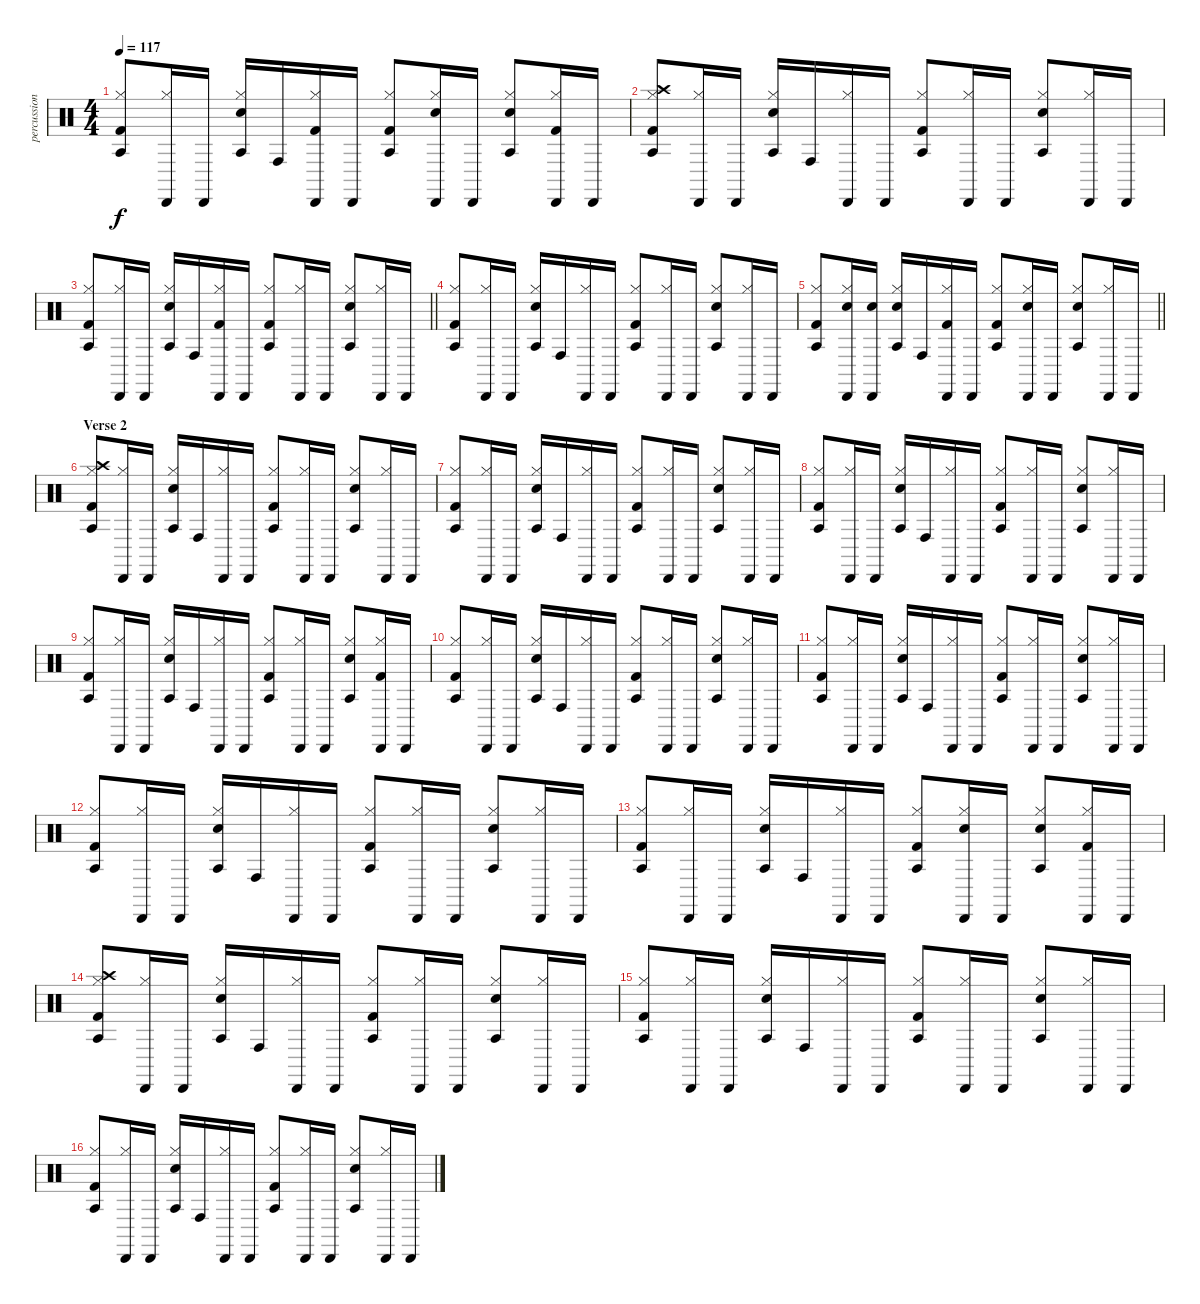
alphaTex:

\track ("percussion" "percussion") {instrument percussion}
\staff {score}
\articulation defaults
\ts (4 4)
\tempo 117
\clef neutral
\ks c
("Agogo tow (hit)" "Hi-Hat (closed)" "Kick (hit) 2").8{dy f} ("Cabasa (hit)" "Hi-Hat (closed)").16 "Cabasa (hit)".16 ("Agogo tow (hit)" "Snare (hit) 2" "Hi-Hat (closed)").16 "Conga high (hit)".16 ("Cabasa (hit)" "Hi-Hat (closed)" "Kick (hit) 2").16 "Cabasa (hit)".16 ("Agogo tow (hit)" "Hi-Hat (closed)" "Kick (hit) 2").8 ("Cabasa (hit)" "Snare (hit) 2" "Hi-Hat (closed)").16 "Cabasa (hit)".16 ("Agogo tow (hit)" "Snare (hit) 2" "Hi-Hat (closed)").8 ("Cabasa (hit)" "Hi-Hat (closed)" "Kick (hit) 2").16 "Cabasa (hit)".16 |
("Crash high (hit)" "Agogo tow (hit)" "Hi-Hat (closed)" "Kick (hit) 2").8 ("Cabasa (hit)" "Hi-Hat (closed)").16 "Cabasa (hit)".16 ("Agogo tow (hit)" "Snare (hit) 2" "Hi-Hat (closed)").16 "Conga high (hit)".16 ("Cabasa (hit)" "Hi-Hat (closed)").16 "Cabasa (hit)".16 ("Agogo tow (hit)" "Hi-Hat (closed)" "Kick (hit) 2").8 ("Cabasa (hit)" "Hi-Hat (closed)").16 "Cabasa (hit)".16 ("Agogo tow (hit)" "Snare (hit) 2" "Hi-Hat (closed)").8 ("Cabasa (hit)" "Hi-Hat (closed)").16 "Cabasa (hit)".16 |
\barLineRight lightlight
("Agogo tow (hit)" "Hi-Hat (closed)" "Kick (hit) 2").8 ("Cabasa (hit)" "Hi-Hat (closed)").16 "Cabasa (hit)".16 ("Agogo tow (hit)" "Snare (hit) 2" "Hi-Hat (closed)").16 "Conga high (hit)".16 ("Cabasa (hit)" "Hi-Hat (closed)" "Kick (hit) 2").16 "Cabasa (hit)".16 ("Agogo tow (hit)" "Hi-Hat (closed)" "Kick (hit) 2").8 ("Cabasa (hit)" "Hi-Hat (closed)").16 "Cabasa (hit)".16 ("Agogo tow (hit)" "Snare (hit) 2" "Hi-Hat (closed)").8 ("Cabasa (hit)" "Hi-Hat (closed)").16 "Cabasa (hit)".16 |
("Agogo tow (hit)" "Hi-Hat (closed)" "Kick (hit) 2").8 ("Cabasa (hit)" "Hi-Hat (closed)").16 "Cabasa (hit)".16 ("Agogo tow (hit)" "Snare (hit) 2" "Hi-Hat (closed)").16 "Conga high (hit)".16 ("Cabasa (hit)" "Hi-Hat (closed)").16 "Cabasa (hit)".16 ("Agogo tow (hit)" "Hi-Hat (closed)" "Kick (hit) 2").8 ("Cabasa (hit)" "Hi-Hat (closed)").16 "Cabasa (hit)".16 ("Agogo tow (hit)" "Snare (hit) 2" "Hi-Hat (closed)").8 ("Cabasa (hit)" "Hi-Hat (closed)").16 "Cabasa (hit)".16 |
\barLineRight lightlight
("Agogo tow (hit)" "Hi-Hat (closed)" "Kick (hit) 2").8 ("Cabasa (hit)" "Snare (hit) 2" "Hi-Hat (closed)").16 ("Cabasa (hit)" "Snare (hit) 2").16 ("Agogo tow (hit)" "Snare (hit) 2" "Hi-Hat (closed)").16 "Conga high (hit)".16 ("Cabasa (hit)" "Hi-Hat (closed)" "Kick (hit) 2").16 "Cabasa (hit)".16 ("Agogo tow (hit)" "Hi-Hat (closed)" "Kick (hit) 2").8 ("Cabasa (hit)" "Snare (hit) 2" "Hi-Hat (closed)").16 "Cabasa (hit)".16 ("Agogo tow (hit)" "Snare (hit) 2" "Hi-Hat (closed)").8 ("Cabasa (hit)" "Hi-Hat (closed)").16 "Cabasa (hit)".16 |
\section ("" "Verse 2")
("Crash high (hit)" "Agogo tow (hit)" "Hi-Hat (closed)" "Kick (hit) 2").8 ("Cabasa (hit)" "Hi-Hat (closed)").16 "Cabasa (hit)".16 ("Agogo tow (hit)" "Snare (hit) 2" "Hi-Hat (closed)").16 "Conga high (hit)".16 ("Cabasa (hit)" "Hi-Hat (closed)").16 "Cabasa (hit)".16 ("Agogo tow (hit)" "Hi-Hat (closed)" "Kick (hit) 2").8 ("Cabasa (hit)" "Hi-Hat (closed)").16 "Cabasa (hit)".16 ("Agogo tow (hit)" "Snare (hit) 2" "Hi-Hat (closed)").8 ("Cabasa (hit)" "Hi-Hat (closed)").16 "Cabasa (hit)".16 |
("Agogo tow (hit)" "Hi-Hat (closed)" "Kick (hit) 2").8 ("Cabasa (hit)" "Hi-Hat (closed)").16 "Cabasa (hit)".16 ("Agogo tow (hit)" "Snare (hit) 2" "Hi-Hat (closed)").16 "Conga high (hit)".16 ("Cabasa (hit)" "Hi-Hat (closed)").16 "Cabasa (hit)".16 ("Agogo tow (hit)" "Hi-Hat (closed)" "Kick (hit) 2").8 ("Cabasa (hit)" "Hi-Hat (closed)").16 "Cabasa (hit)".16 ("Agogo tow (hit)" "Snare (hit) 2" "Hi-Hat (closed)").8 ("Cabasa (hit)" "Hi-Hat (closed)").16 "Cabasa (hit)".16 |
("Agogo tow (hit)" "Hi-Hat (closed)" "Kick (hit) 2").8 ("Cabasa (hit)" "Hi-Hat (closed)").16 "Cabasa (hit)".16 ("Agogo tow (hit)" "Snare (hit) 2" "Hi-Hat (closed)").16 "Conga high (hit)".16 ("Cabasa (hit)" "Hi-Hat (closed)").16 "Cabasa (hit)".16 ("Agogo tow (hit)" "Hi-Hat (closed)" "Kick (hit) 2").8 ("Cabasa (hit)" "Hi-Hat (closed)").16 "Cabasa (hit)".16 ("Agogo tow (hit)" "Snare (hit) 2" "Hi-Hat (closed)").8 ("Cabasa (hit)" "Hi-Hat (closed)").16 "Cabasa (hit)".16 |
("Agogo tow (hit)" "Hi-Hat (closed)" "Kick (hit) 2").8 ("Cabasa (hit)" "Hi-Hat (closed)").16 "Cabasa (hit)".16 ("Agogo tow (hit)" "Snare (hit) 2" "Hi-Hat (closed)").16 "Conga high (hit)".16 ("Cabasa (hit)" "Hi-Hat (closed)").16 "Cabasa (hit)".16 ("Agogo tow (hit)" "Hi-Hat (closed)" "Kick (hit) 2").8 ("Cabasa (hit)" "Hi-Hat (closed)").16 "Cabasa (hit)".16 ("Agogo tow (hit)" "Snare (hit) 2" "Hi-Hat (closed)").8 ("Cabasa (hit)" "Hi-Hat (closed)" "Kick (hit) 2").16 "Cabasa (hit)".16 |
("Agogo tow (hit)" "Hi-Hat (closed)" "Kick (hit) 2").8 ("Cabasa (hit)" "Hi-Hat (closed)").16 "Cabasa (hit)".16 ("Agogo tow (hit)" "Snare (hit) 2" "Hi-Hat (closed)").16 "Conga high (hit)".16 ("Cabasa (hit)" "Hi-Hat (closed)").16 "Cabasa (hit)".16 ("Agogo tow (hit)" "Hi-Hat (closed)" "Kick (hit) 2").8 ("Cabasa (hit)" "Hi-Hat (closed)").16 "Cabasa (hit)".16 ("Agogo tow (hit)" "Snare (hit) 2" "Hi-Hat (closed)").8 ("Cabasa (hit)" "Hi-Hat (closed)").16 "Cabasa (hit)".16 |
("Agogo tow (hit)" "Hi-Hat (closed)" "Kick (hit) 2").8 ("Cabasa (hit)" "Hi-Hat (closed)").16 "Cabasa (hit)".16 ("Agogo tow (hit)" "Snare (hit) 2" "Hi-Hat (closed)").16 "Conga high (hit)".16 ("Cabasa (hit)" "Hi-Hat (closed)").16 "Cabasa (hit)".16 ("Agogo tow (hit)" "Hi-Hat (closed)" "Kick (hit) 2").8 ("Cabasa (hit)" "Hi-Hat (closed)").16 "Cabasa (hit)".16 ("Agogo tow (hit)" "Snare (hit) 2" "Hi-Hat (closed)").8 ("Cabasa (hit)" "Hi-Hat (closed)").16 "Cabasa (hit)".16 |
("Agogo tow (hit)" "Hi-Hat (closed)" "Kick (hit) 2").8 ("Cabasa (hit)" "Hi-Hat (closed)").16 "Cabasa (hit)".16 ("Agogo tow (hit)" "Snare (hit) 2" "Hi-Hat (closed)").16 "Conga high (hit)".16 ("Cabasa (hit)" "Hi-Hat (closed)").16 "Cabasa (hit)".16 ("Agogo tow (hit)" "Hi-Hat (closed)" "Kick (hit) 2").8 ("Cabasa (hit)" "Hi-Hat (closed)").16 "Cabasa (hit)".16 ("Agogo tow (hit)" "Snare (hit) 2" "Hi-Hat (closed)").8 ("Cabasa (hit)" "Hi-Hat (closed)").16 "Cabasa (hit)".16 |
("Agogo tow (hit)" "Hi-Hat (closed)" "Kick (hit) 2").8 ("Cabasa (hit)" "Hi-Hat (closed)").16 "Cabasa (hit)".16 ("Agogo tow (hit)" "Snare (hit) 2" "Hi-Hat (closed)").16 "Conga high (hit)".16 ("Cabasa (hit)" "Hi-Hat (closed)").16 "Cabasa (hit)".16 ("Agogo tow (hit)" "Hi-Hat (closed)" "Kick (hit) 2").8 ("Cabasa (hit)" "Snare (hit) 2" "Hi-Hat (closed)").16 "Cabasa (hit)".16 ("Agogo tow (hit)" "Snare (hit) 2" "Hi-Hat (closed)").8 ("Cabasa (hit)" "Hi-Hat (closed)" "Kick (hit) 2").16 "Cabasa (hit)".16 |
("Crash high (hit)" "Agogo tow (hit)" "Hi-Hat (closed)" "Kick (hit) 2").8 ("Cabasa (hit)" "Hi-Hat (closed)").16 "Cabasa (hit)".16 ("Agogo tow (hit)" "Snare (hit) 2" "Hi-Hat (closed)").16 "Conga high (hit)".16 ("Cabasa (hit)" "Hi-Hat (closed)").16 "Cabasa (hit)".16 ("Agogo tow (hit)" "Hi-Hat (closed)" "Kick (hit) 2").8 ("Cabasa (hit)" "Hi-Hat (closed)").16 "Cabasa (hit)".16 ("Agogo tow (hit)" "Snare (hit) 2" "Hi-Hat (closed)").8 ("Cabasa (hit)" "Hi-Hat (closed)").16 "Cabasa (hit)".16 |
("Agogo tow (hit)" "Hi-Hat (closed)" "Kick (hit) 2").8 ("Cabasa (hit)" "Hi-Hat (closed)").16 "Cabasa (hit)".16 ("Agogo tow (hit)" "Snare (hit) 2" "Hi-Hat (closed)").16 "Conga high (hit)".16 ("Cabasa (hit)" "Hi-Hat (closed)").16 "Cabasa (hit)".16 ("Agogo tow (hit)" "Hi-Hat (closed)" "Kick (hit) 2").8 ("Cabasa (hit)" "Hi-Hat (closed)").16 "Cabasa (hit)".16 ("Agogo tow (hit)" "Snare (hit) 2" "Hi-Hat (closed)").8 ("Cabasa (hit)" "Hi-Hat (closed)").16 "Cabasa (hit)".16 |
("Agogo tow (hit)" "Hi-Hat (closed)" "Kick (hit) 2").8 ("Cabasa (hit)" "Hi-Hat (closed)").16 "Cabasa (hit)".16 ("Agogo tow (hit)" "Snare (hit) 2" "Hi-Hat (closed)").16 "Conga high (hit)".16 ("Cabasa (hit)" "Hi-Hat (closed)").16 "Cabasa (hit)".16 ("Agogo tow (hit)" "Hi-Hat (closed)" "Kick (hit) 2").8 ("Cabasa (hit)" "Hi-Hat (closed)").16 "Cabasa (hit)".16 ("Agogo tow (hit)" "Snare (hit) 2" "Hi-Hat (closed)").8 ("Cabasa (hit)" "Hi-Hat (closed)").16 "Cabasa (hit)".16
